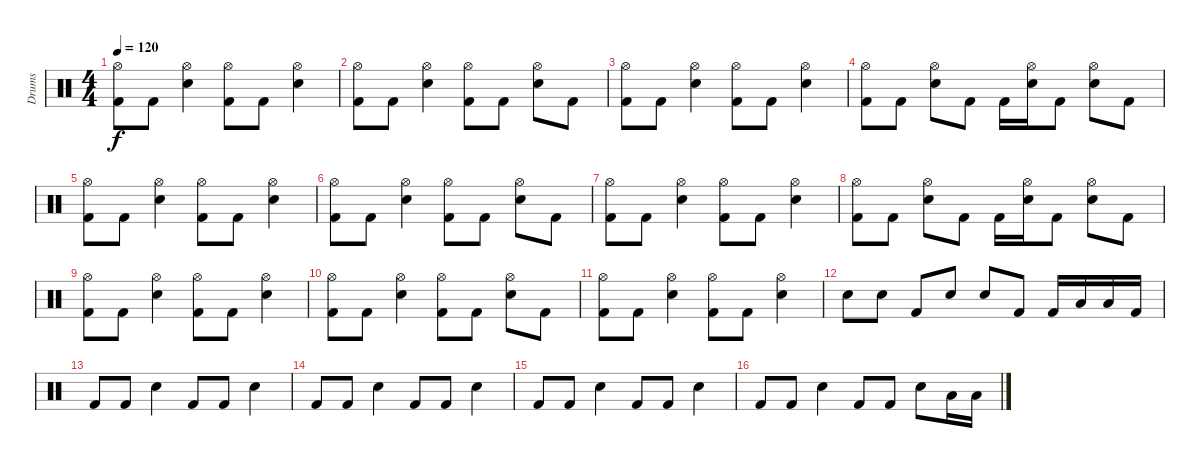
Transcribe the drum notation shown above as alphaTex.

\track ("Drums" "Drums") {instrument percussion}
\staff {score}
\articulation defaults
\ts (4 4)
\tempo 120
\clef neutral
\ks c
("Hi-Hat (open)" "Kick (hit) 2").8{dy f} "Kick (hit) 2".8 ("Hi-Hat (open)" "Snare (hit) 2").4 ("Hi-Hat (open)" "Kick (hit) 2").8 "Kick (hit) 2".8 ("Hi-Hat (open)" "Snare (hit) 2").4 |
("Hi-Hat (open)" "Kick (hit) 2").8 "Kick (hit) 2".8 ("Hi-Hat (open)" "Snare (hit) 2").4 ("Hi-Hat (open)" "Kick (hit) 2").8 "Kick (hit) 2".8 ("Hi-Hat (open)" "Snare (hit) 2").8 "Kick (hit) 2".8 |
("Hi-Hat (open)" "Kick (hit) 2").8 "Kick (hit) 2".8 ("Hi-Hat (open)" "Snare (hit) 2").4 ("Hi-Hat (open)" "Kick (hit) 2").8 "Kick (hit) 2".8 ("Hi-Hat (open)" "Snare (hit) 2").4 |
("Hi-Hat (open)" "Kick (hit) 2").8 "Kick (hit) 2".8 ("Hi-Hat (open)" "Snare (hit) 2").8 "Kick (hit) 2".8 "Kick (hit) 2".16 ("Hi-Hat (open)" "Snare (hit) 2").16 "Kick (hit) 2".8 ("Hi-Hat (open)" "Snare (hit) 2").8 "Kick (hit) 2".8 |
("Hi-Hat (open)" "Kick (hit) 2").8 "Kick (hit) 2".8 ("Hi-Hat (open)" "Snare (hit) 2").4 ("Hi-Hat (open)" "Kick (hit) 2").8 "Kick (hit) 2".8 ("Hi-Hat (open)" "Snare (hit) 2").4 |
("Hi-Hat (open)" "Kick (hit) 2").8 "Kick (hit) 2".8 ("Hi-Hat (open)" "Snare (hit) 2").4 ("Hi-Hat (open)" "Kick (hit) 2").8 "Kick (hit) 2".8 ("Hi-Hat (open)" "Snare (hit) 2").8 "Kick (hit) 2".8 |
("Hi-Hat (open)" "Kick (hit) 2").8 "Kick (hit) 2".8 ("Hi-Hat (open)" "Snare (hit) 2").4 ("Hi-Hat (open)" "Kick (hit) 2").8 "Kick (hit) 2".8 ("Hi-Hat (open)" "Snare (hit) 2").4 |
("Hi-Hat (open)" "Kick (hit) 2").8 "Kick (hit) 2".8 ("Hi-Hat (open)" "Snare (hit) 2").8 "Kick (hit) 2".8 "Kick (hit) 2".16 ("Hi-Hat (open)" "Snare (hit) 2").16 "Kick (hit) 2".8 ("Hi-Hat (open)" "Snare (hit) 2").8 "Kick (hit) 2".8 |
("Hi-Hat (open)" "Kick (hit) 2").8 "Kick (hit) 2".8 ("Hi-Hat (open)" "Snare (hit) 2").4 ("Hi-Hat (open)" "Kick (hit) 2").8 "Kick (hit) 2".8 ("Hi-Hat (open)" "Snare (hit) 2").4 |
("Hi-Hat (open)" "Kick (hit) 2").8 "Kick (hit) 2".8 ("Hi-Hat (open)" "Snare (hit) 2").4 ("Hi-Hat (open)" "Kick (hit) 2").8 "Kick (hit) 2".8 ("Hi-Hat (open)" "Snare (hit) 2").8 "Kick (hit) 2".8 |
("Hi-Hat (open)" "Kick (hit) 2").8 "Kick (hit) 2".8 ("Hi-Hat (open)" "Snare (hit) 2").4 ("Hi-Hat (open)" "Kick (hit) 2").8 "Kick (hit) 2".8 ("Hi-Hat (open)" "Snare (hit) 2").4 |
"Snare (hit) 2".8 "Snare (hit) 2".8 "Kick (hit) 2".8 "Snare (hit) 2".8 "Snare (hit) 2".8 "Kick (hit) 2".8 "Kick (hit) 2".16 "Low Tom (hit)".16 "Low Tom (hit)".16 "Kick (hit) 2".16 |
"Kick (hit) 2".8 "Kick (hit) 2".8 "Snare (hit) 2".4 "Kick (hit) 2".8 "Kick (hit) 2".8 "Snare (hit) 2".4 |
"Kick (hit) 2".8 "Kick (hit) 2".8 "Snare (hit) 2".4 "Kick (hit) 2".8 "Kick (hit) 2".8 "Snare (hit) 2".4 |
"Kick (hit) 2".8 "Kick (hit) 2".8 "Snare (hit) 2".4 "Kick (hit) 2".8 "Kick (hit) 2".8 "Snare (hit) 2".4 |
"Kick (hit) 2".8 "Kick (hit) 2".8 "Snare (hit) 2".4 "Kick (hit) 2".8 "Kick (hit) 2".8 "Snare (hit) 2".8 "Low Tom (hit)".16 "Low Tom (hit)".16
